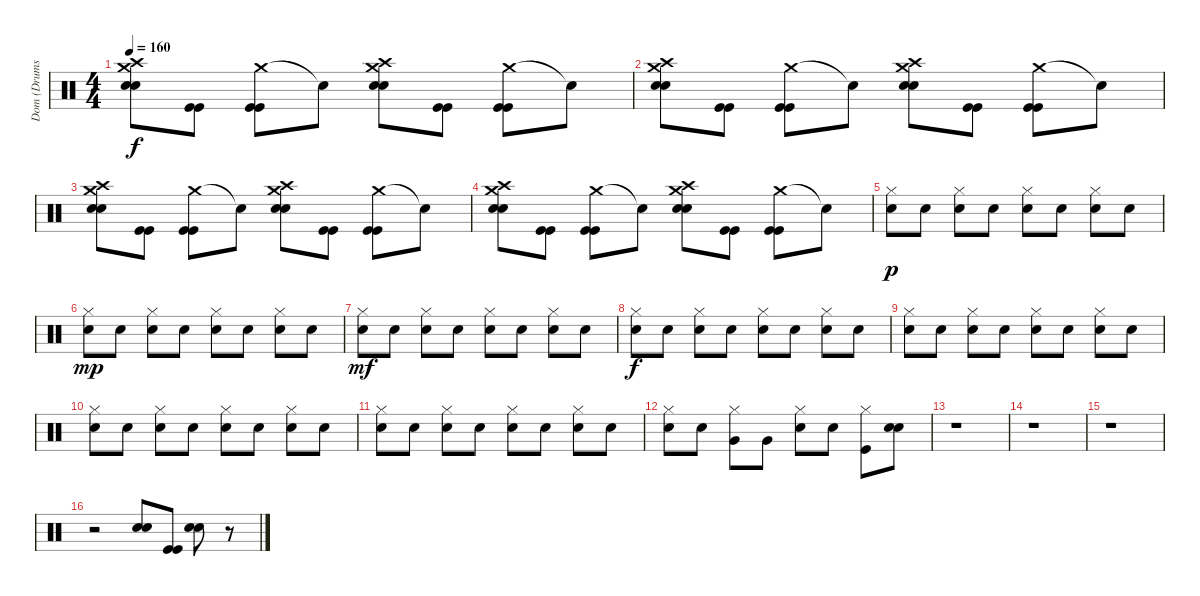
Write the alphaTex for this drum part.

\track ("Dom (Drums)" "Dom (Drums") {instrument percussion}
\staff {score}
\articulation defaults
\ts (4 4)
\tempo 160
\clef neutral
\ks c
("Crash medium (hit)" "Crash high (hit)" "Snare (hit) 2" "Snare (hit) 2").8{dy f} ("Kick (hit)" "Kick (hit)").8 ("Crash medium (hit)" "Kick (hit)" "Kick (hit)").8 "Snare (hit)"{t}.8 ("Crash medium (hit)" "Crash high (hit)" "Snare (hit) 2" "Snare (hit) 2").8 ("Kick (hit)" "Kick (hit)").8 ("Crash medium (hit)" "Kick (hit)" "Kick (hit)").8 "Snare (hit)"{t}.8 |
("Crash medium (hit)" "Crash high (hit)" "Snare (hit) 2" "Snare (hit) 2").8 ("Kick (hit)" "Kick (hit)").8 ("Crash medium (hit)" "Kick (hit)" "Kick (hit)").8 "Snare (hit)"{t}.8 ("Crash medium (hit)" "Crash high (hit)" "Snare (hit) 2" "Snare (hit) 2").8 ("Kick (hit)" "Kick (hit)").8 ("Crash medium (hit)" "Kick (hit)" "Kick (hit)").8 "Snare (hit)"{t}.8 |
("Crash medium (hit)" "Crash high (hit)" "Snare (hit) 2" "Snare (hit) 2").8 ("Kick (hit)" "Kick (hit)").8 ("Crash medium (hit)" "Kick (hit)" "Kick (hit)").8 "Snare (hit)"{t}.8 ("Crash medium (hit)" "Crash high (hit)" "Snare (hit) 2" "Snare (hit) 2").8 ("Kick (hit)" "Kick (hit)").8 ("Crash medium (hit)" "Kick (hit)" "Kick (hit)").8 "Snare (hit)"{t}.8 |
("Crash medium (hit)" "Crash high (hit)" "Snare (hit) 2" "Snare (hit) 2").8 ("Kick (hit)" "Kick (hit)").8 ("Crash medium (hit)" "Kick (hit)" "Kick (hit)").8 "Snare (hit)"{t}.8 ("Crash medium (hit)" "Crash high (hit)" "Snare (hit) 2" "Snare (hit) 2").8 ("Kick (hit)" "Kick (hit)").8 ("Crash medium (hit)" "Kick (hit)" "Kick (hit)").8 "Snare (hit)"{t}.8 |
("Hi-Hat (closed)" "Snare (hit) 2").8{dy p} "Snare (hit) 2".8 ("Hi-Hat (closed)" "Snare (hit) 2").8 "Snare (hit) 2".8 ("Hi-Hat (closed)" "Snare (hit) 2").8 "Snare (hit) 2".8 ("Hi-Hat (closed)" "Snare (hit) 2").8 "Snare (hit) 2".8 |
("Hi-Hat (closed)" "Snare (hit) 2").8{dy mp} "Snare (hit) 2".8 ("Hi-Hat (closed)" "Snare (hit) 2").8 "Snare (hit) 2".8 ("Hi-Hat (closed)" "Snare (hit) 2").8 "Snare (hit) 2".8 ("Hi-Hat (closed)" "Snare (hit) 2").8 "Snare (hit) 2".8 |
("Hi-Hat (closed)" "Snare (hit) 2").8{dy mf} "Snare (hit) 2".8 ("Hi-Hat (closed)" "Snare (hit) 2").8 "Snare (hit) 2".8 ("Hi-Hat (closed)" "Snare (hit) 2").8 "Snare (hit) 2".8 ("Hi-Hat (closed)" "Snare (hit) 2").8 "Snare (hit) 2".8 |
("Hi-Hat (closed)" "Snare (hit) 2").8{dy f} "Snare (hit) 2".8 ("Hi-Hat (closed)" "Snare (hit) 2").8 "Snare (hit) 2".8 ("Hi-Hat (closed)" "Snare (hit) 2").8 "Snare (hit) 2".8 ("Hi-Hat (closed)" "Snare (hit) 2").8 "Snare (hit) 2".8 |
("Hi-Hat (closed)" "Snare (hit) 2").8 "Snare (hit) 2".8 ("Hi-Hat (closed)" "Snare (hit) 2").8 "Snare (hit) 2".8 ("Hi-Hat (closed)" "Snare (hit) 2").8 "Snare (hit) 2".8 ("Hi-Hat (closed)" "Snare (hit) 2").8 "Snare (hit) 2".8 |
("Hi-Hat (closed)" "Snare (hit) 2").8 "Snare (hit) 2".8 ("Hi-Hat (closed)" "Snare (hit) 2").8 "Snare (hit) 2".8 ("Hi-Hat (closed)" "Snare (hit) 2").8 "Snare (hit) 2".8 ("Hi-Hat (closed)" "Snare (hit) 2").8 "Snare (hit) 2".8 |
("Hi-Hat (closed)" "Snare (hit) 2").8 "Snare (hit) 2".8 ("Hi-Hat (closed)" "Snare (hit) 2").8 "Snare (hit) 2".8 ("Hi-Hat (closed)" "Snare (hit) 2").8 "Snare (hit) 2".8 ("Hi-Hat (closed)" "Snare (hit) 2").8 "Snare (hit) 2".8 |
("Hi-Hat (closed)" "Snare (hit) 2").8 "Snare (hit) 2".8 ("Hi-Hat (closed)" "Very Low Tom (hit)").8 "Very Low Tom (hit)".8 ("Hi-Hat (closed)" "Snare (hit) 2").8 "Snare (hit) 2".8 ("Hi-Hat (closed)" "Kick (hit)").8 ("Snare (hit) 2" "Snare (hit) 2").8 |
r.1 |
r.1 |
r.1 |
r.2 ("Snare (hit) 2" "Snare (hit) 2").8 ("Kick (hit)" "Kick (hit)").8 ("Snare (hit) 2" "Snare (hit) 2").8 r.8
